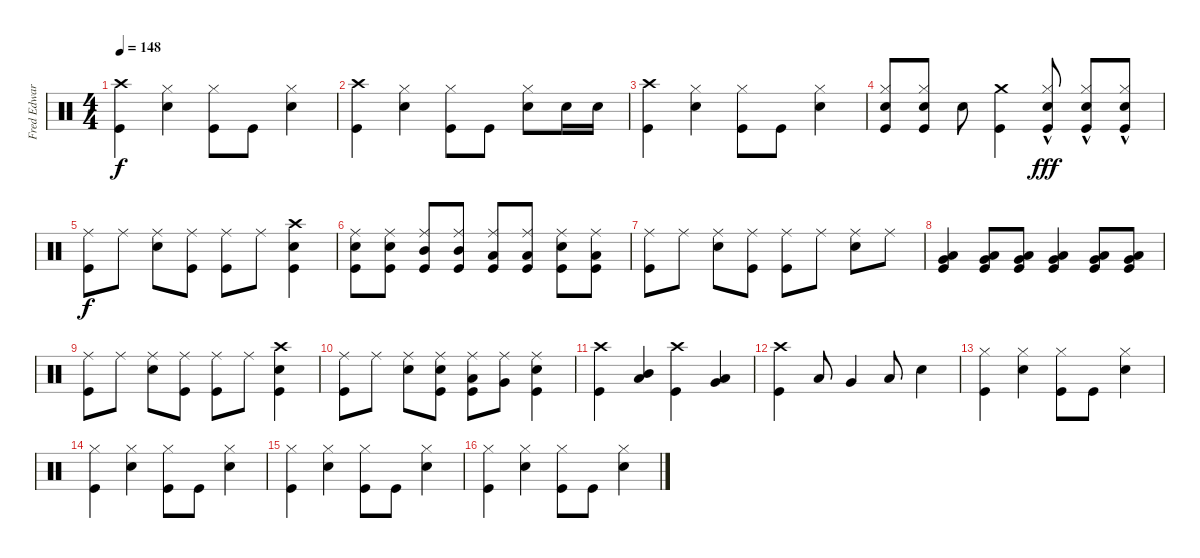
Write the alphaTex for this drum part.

\track ("Fred Edwards Drums" "Fred Edwar") {instrument percussion}
\staff {score}
\articulation defaults
\ts (4 4)
\tempo 148
\clef neutral
\ks c
("Crash high (hit)" "Kick (hit)").4{dy f} ("Hi-Hat (closed)" "Snare (hit) 2").4 ("Hi-Hat (closed)" "Kick (hit)").8 "Kick (hit)".8 ("Hi-Hat (closed)" "Snare (hit) 2").4 |
("Crash high (hit)" "Kick (hit)").4 ("Hi-Hat (closed)" "Snare (hit) 2").4 ("Hi-Hat (closed)" "Kick (hit)").8 "Kick (hit)".8 ("Hi-Hat (closed)" "Snare (hit) 2").8 "Snare (hit) 2".16 "Snare (hit) 2".16 |
("Crash high (hit)" "Kick (hit)").4 ("Hi-Hat (closed)" "Snare (hit) 2").4 ("Hi-Hat (closed)" "Kick (hit)").8 "Kick (hit)".8 ("Hi-Hat (closed)" "Snare (hit) 2").4 |
("Hi-Hat (closed)" "Snare (hit) 2" "Kick (hit)").8 ("Hi-Hat (closed)" "Snare (hit) 2" "Kick (hit)").8 "Snare (hit) 2".8 ("Crash medium (hit)" "Kick (hit)").4 ("Hi-Hat (closed)"{hac} "Snare (hit) 2" "Kick (hit)").8{dy fff} ("Hi-Hat (closed)"{hac} "Snare (hit) 2" "Kick (hit)").8 ("Hi-Hat (closed)"{hac} "Snare (hit) 2" "Kick (hit)").8 |
("Ride (middle)" "Kick (hit)").8{dy f} "Ride (middle)".8 ("Ride (middle)" "Snare (hit) 2").8 ("Ride (middle)" "Kick (hit)").8 ("Ride (middle)" "Kick (hit)").8 "Ride (middle)".8 ("Crash high (hit)" "Snare (hit) 2" "Kick (hit)").4 |
("Ride (middle)" "Snare (hit) 2" "Kick (hit)").8 ("Ride (middle)" "Snare (hit) 2" "Kick (hit)").8 ("Ride (middle)" "Mid Tom (hit)" "Kick (hit)").8 ("Ride (middle)" "Mid Tom (hit)" "Kick (hit)").8 ("Ride (middle)" "Low Tom (hit)" "Kick (hit)").8 ("Ride (middle)" "Low Tom (hit)" "Kick (hit)").8 ("Ride (middle)" "Snare (hit) 2" "Kick (hit)").8 ("Ride (middle)" "Low Tom (hit)" "Kick (hit)").8 |
("Ride (middle)" "Kick (hit)").8 "Ride (middle)".8 ("Ride (middle)" "Snare (hit) 2").8 ("Ride (middle)" "Kick (hit)").8 ("Ride (middle)" "Kick (hit)").8 "Ride (middle)".8 ("Ride (middle)" "Snare (hit) 2").8 "Ride (middle)".8 |
("Very Low Tom (hit)" "Low Floor Tom (hit)" "Kick (hit)").4 ("Very Low Tom (hit)" "Low Floor Tom (hit)" "Kick (hit)").8 ("Very Low Tom (hit)" "Low Floor Tom (hit)" "Kick (hit)").8 ("Very Low Tom (hit)" "Low Floor Tom (hit)" "Kick (hit)").4 ("Very Low Tom (hit)" "Low Floor Tom (hit)" "Kick (hit)").8 ("Very Low Tom (hit)" "Low Floor Tom (hit)" "Kick (hit)").8 |
("Ride (middle)" "Kick (hit)").8 "Ride (middle)".8 ("Ride (middle)" "Snare (hit) 2").8 ("Ride (middle)" "Kick (hit)").8 ("Ride (middle)" "Kick (hit)").8 "Ride (middle)".8 ("Crash high (hit)" "Snare (hit) 2" "Kick (hit)").4 |
("Ride (middle)" "Kick (hit)").8 "Ride (middle)".8 ("Ride (middle)" "Snare (hit) 2").8 ("Ride (middle)" "Snare (hit) 2" "Kick (hit)").8 ("Ride (middle)" "Low Tom (hit)" "Kick (hit)").8 ("Ride (middle)" "Very Low Tom (hit)").8 ("Ride (middle)" "Snare (hit) 2" "Kick (hit)").4 |
("Crash high (hit)" "Kick (hit)").4 ("Mid Tom (hit)" "Low Tom (hit)").4 ("Crash high (hit)" "Kick (hit)").4 ("Low Tom (hit)" "Very Low Tom (hit)").4 |
("Crash high (hit)" "Kick (hit)").4 "Low Tom (hit)".8 "Very Low Tom (hit)".4 "Low Tom (hit)".8 "Snare (hit) 2".4 |
("Hi-Hat (closed)" "Kick (hit)").4 ("Hi-Hat (closed)" "Snare (hit) 2").4 ("Hi-Hat (closed)" "Kick (hit)").8 "Kick (hit)".8 ("Hi-Hat (closed)" "Snare (hit) 2").4 |
("Hi-Hat (closed)" "Kick (hit)").4 ("Hi-Hat (closed)" "Snare (hit) 2").4 ("Hi-Hat (closed)" "Kick (hit)").8 "Kick (hit)".8 ("Hi-Hat (closed)" "Snare (hit) 2").4 |
("Hi-Hat (closed)" "Kick (hit)").4 ("Hi-Hat (closed)" "Snare (hit) 2").4 ("Hi-Hat (closed)" "Kick (hit)").8 "Kick (hit)".8 ("Hi-Hat (closed)" "Snare (hit) 2").4 |
("Hi-Hat (closed)" "Kick (hit)").4 ("Hi-Hat (closed)" "Snare (hit) 2").4 ("Hi-Hat (closed)" "Kick (hit)").8 "Kick (hit)".8 ("Hi-Hat (closed)" "Snare (hit) 2").4
